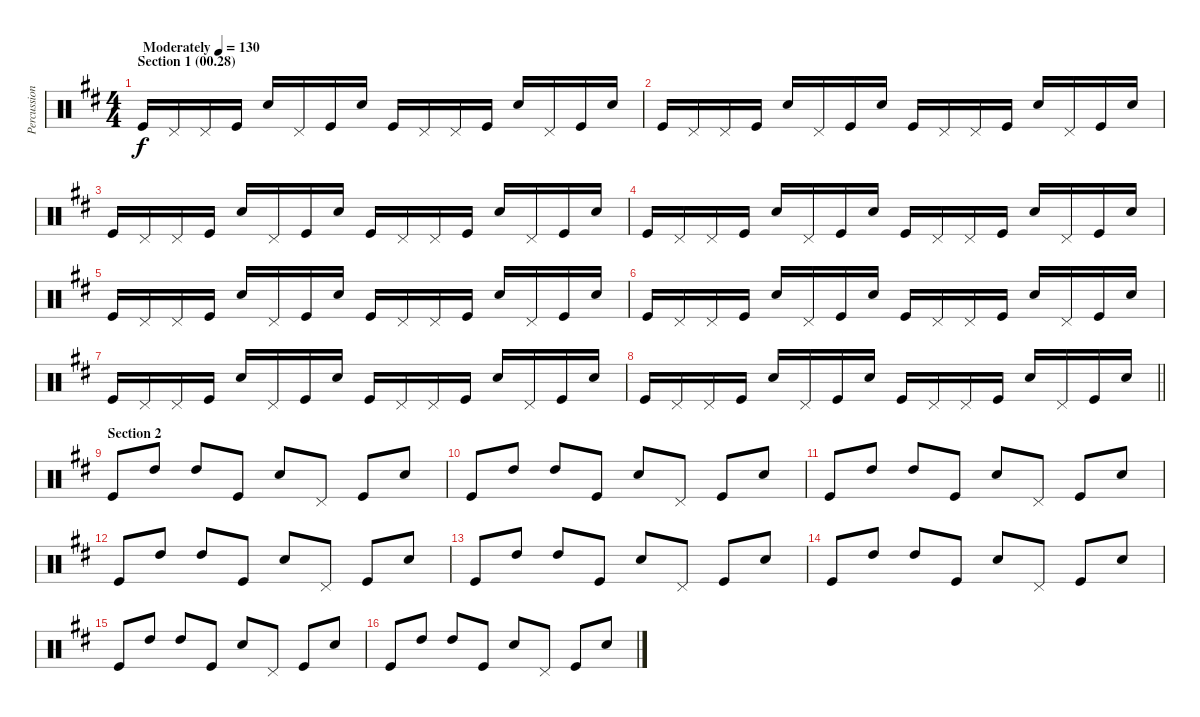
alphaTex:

\track ("Percussion" "Percussion") {instrument percussion}
\staff {score}
\articulation defaults
\ts (4 4)
\section ("" "Section 1 (00.28)")
\tempo (130 "Moderately")
\clef neutral
\ks d "Kick (hit)".16{dy f} "Pedal Hi-Hat (hit)".16 "Pedal Hi-Hat (hit)".16 "Kick (hit)".16 "Snare (hit) 2".16 "Pedal Hi-Hat (hit)".16 "Kick (hit)".16 "Snare (hit) 2".16 "Kick (hit)".16 "Pedal Hi-Hat (hit)".16 "Pedal Hi-Hat (hit)".16 "Kick (hit)".16 "Snare (hit) 2".16 "Pedal Hi-Hat (hit)".16 "Kick (hit)".16 "Snare (hit) 2".16
|
"Kick (hit)".16 "Pedal Hi-Hat (hit)".16 "Pedal Hi-Hat (hit)".16 "Kick (hit)".16 "Snare (hit) 2".16 "Pedal Hi-Hat (hit)".16 "Kick (hit)".16 "Snare (hit) 2".16 "Kick (hit)".16 "Pedal Hi-Hat (hit)".16 "Pedal Hi-Hat (hit)".16 "Kick (hit)".16 "Snare (hit) 2".16 "Pedal Hi-Hat (hit)".16 "Kick (hit)".16 "Snare (hit) 2".16 |
"Kick (hit)".16 "Pedal Hi-Hat (hit)".16 "Pedal Hi-Hat (hit)".16 "Kick (hit)".16 "Snare (hit) 2".16 "Pedal Hi-Hat (hit)".16 "Kick (hit)".16 "Snare (hit) 2".16 "Kick (hit)".16 "Pedal Hi-Hat (hit)".16 "Pedal Hi-Hat (hit)".16 "Kick (hit)".16 "Snare (hit) 2".16 "Pedal Hi-Hat (hit)".16 "Kick (hit)".16 "Snare (hit) 2".16 |
"Kick (hit)".16 "Pedal Hi-Hat (hit)".16 "Pedal Hi-Hat (hit)".16 "Kick (hit)".16 "Snare (hit) 2".16 "Pedal Hi-Hat (hit)".16 "Kick (hit)".16 "Snare (hit) 2".16 "Kick (hit)".16 "Pedal Hi-Hat (hit)".16 "Pedal Hi-Hat (hit)".16 "Kick (hit)".16 "Snare (hit) 2".16 "Pedal Hi-Hat (hit)".16 "Kick (hit)".16 "Snare (hit) 2".16 |
"Kick (hit)".16 "Pedal Hi-Hat (hit)".16 "Pedal Hi-Hat (hit)".16 "Kick (hit)".16 "Snare (hit) 2".16 "Pedal Hi-Hat (hit)".16 "Kick (hit)".16 "Snare (hit) 2".16 "Kick (hit)".16 "Pedal Hi-Hat (hit)".16 "Pedal Hi-Hat (hit)".16 "Kick (hit)".16 "Snare (hit) 2".16 "Pedal Hi-Hat (hit)".16 "Kick (hit)".16 "Snare (hit) 2".16 |
"Kick (hit)".16 "Pedal Hi-Hat (hit)".16 "Pedal Hi-Hat (hit)".16 "Kick (hit)".16 "Snare (hit) 2".16 "Pedal Hi-Hat (hit)".16 "Kick (hit)".16 "Snare (hit) 2".16 "Kick (hit)".16 "Pedal Hi-Hat (hit)".16 "Pedal Hi-Hat (hit)".16 "Kick (hit)".16 "Snare (hit) 2".16 "Pedal Hi-Hat (hit)".16 "Kick (hit)".16 "Snare (hit) 2".16 |
"Kick (hit)".16 "Pedal Hi-Hat (hit)".16 "Pedal Hi-Hat (hit)".16 "Kick (hit)".16 "Snare (hit) 2".16 "Pedal Hi-Hat (hit)".16 "Kick (hit)".16 "Snare (hit) 2".16 "Kick (hit)".16 "Pedal Hi-Hat (hit)".16 "Pedal Hi-Hat (hit)".16 "Kick (hit)".16 "Snare (hit) 2".16 "Pedal Hi-Hat (hit)".16 "Kick (hit)".16 "Snare (hit) 2".16 |
\barLineRight lightlight "Kick (hit)".16 "Pedal Hi-Hat (hit)".16 "Pedal Hi-Hat (hit)".16 "Kick (hit)".16 "Snare (hit) 2".16 "Pedal Hi-Hat (hit)".16 "Kick (hit)".16 "Snare (hit) 2".16 "Kick (hit)".16 "Pedal Hi-Hat (hit)".16 "Pedal Hi-Hat (hit)".16 "Kick (hit)".16 "Snare (hit) 2".16 "Pedal Hi-Hat (hit)".16 "Kick (hit)".16 "Snare (hit) 2".16
|
\section ("" "Section 2")
"Kick (hit)".8 "High Tom (hit)".8 "High Tom (hit)".8 "Kick (hit)".8 "Snare (hit) 2".8 "Pedal Hi-Hat (hit)".8 "Kick (hit)".8 "Snare (hit) 2".8 |
"Kick (hit)".8 "High Tom (hit)".8 "High Tom (hit)".8 "Kick (hit)".8 "Snare (hit) 2".8 "Pedal Hi-Hat (hit)".8 "Kick (hit)".8 "Snare (hit) 2".8 |
"Kick (hit)".8 "High Tom (hit)".8 "High Tom (hit)".8 "Kick (hit)".8 "Snare (hit) 2".8 "Pedal Hi-Hat (hit)".8 "Kick (hit)".8 "Snare (hit) 2".8 |
"Kick (hit)".8 "High Tom (hit)".8 "High Tom (hit)".8 "Kick (hit)".8 "Snare (hit) 2".8 "Pedal Hi-Hat (hit)".8 "Kick (hit)".8 "Snare (hit) 2".8 |
"Kick (hit)".8 "High Tom (hit)".8 "High Tom (hit)".8 "Kick (hit)".8 "Snare (hit) 2".8 "Pedal Hi-Hat (hit)".8 "Kick (hit)".8 "Snare (hit) 2".8 |
"Kick (hit)".8 "High Tom (hit)".8 "High Tom (hit)".8 "Kick (hit)".8 "Snare (hit) 2".8 "Pedal Hi-Hat (hit)".8 "Kick (hit)".8 "Snare (hit) 2".8 |
"Kick (hit)".8 "High Tom (hit)".8 "High Tom (hit)".8 "Kick (hit)".8 "Snare (hit) 2".8 "Pedal Hi-Hat (hit)".8 "Kick (hit)".8 "Snare (hit) 2".8 |
"Kick (hit)".8 "High Tom (hit)".8 "High Tom (hit)".8 "Kick (hit)".8 "Snare (hit) 2".8 "Pedal Hi-Hat (hit)".8 "Kick (hit)".8 "Snare (hit) 2".8
